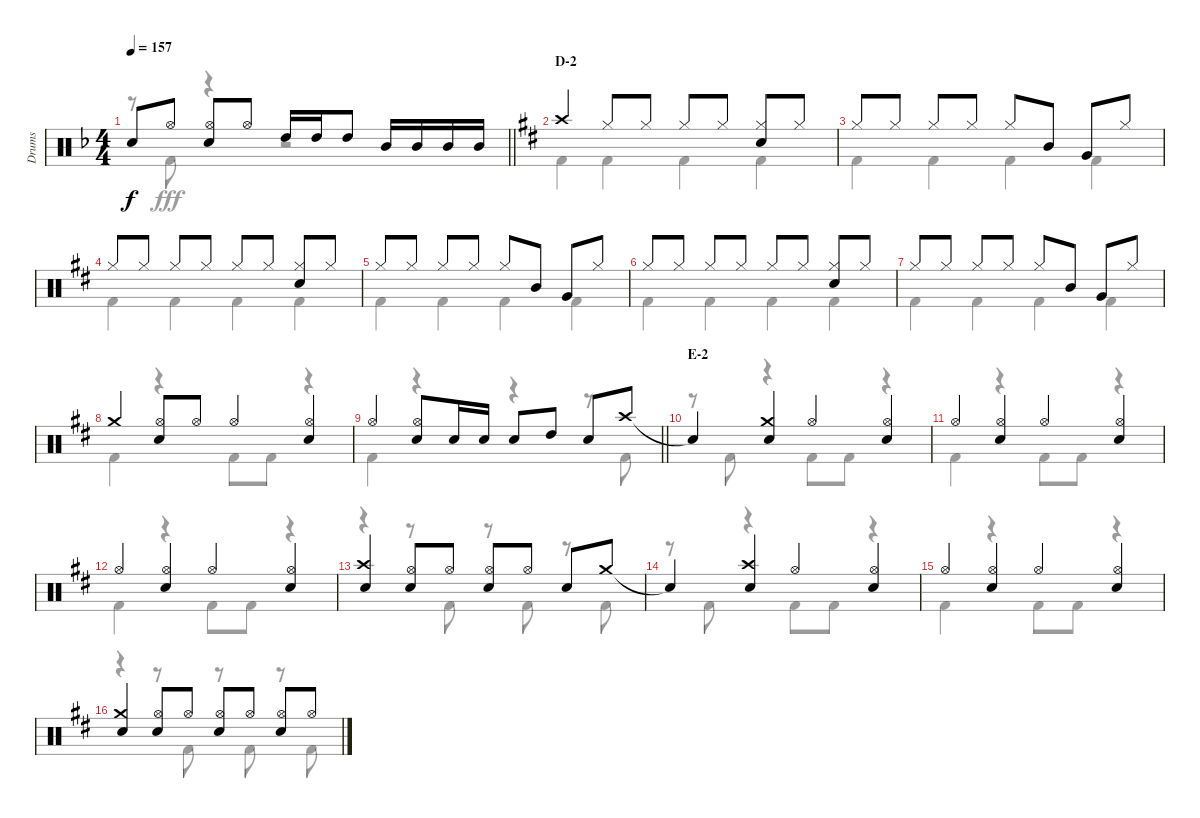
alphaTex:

\track ("Drums" "Drums") {instrument percussion}
\staff {score}
\articulation defaults
\voice
\ts (4 4)
\tempo 157
\clef neutral
\barLineRight lightlight
\ks f "Snare (hit)"{t}.8{dy f} "Hi-Hat (open)".8
("Hi-Hat (open)" "Snare (hit) 2").8 "Hi-Hat (open)".8 "High Tom (hit)".16 "High Tom (hit)".16 "High Tom (hit)".8 "Mid Tom (hit)".16 "Mid Tom (hit)".16 "Mid Tom (hit)".16 "Mid Tom (hit)".16 |
\section ("" "D-2")
\ks d "Crash high (hit)".4 "Hi-Hat (closed)".8 "Hi-Hat (closed)".8 "Hi-Hat (closed)".8 "Hi-Hat (closed)".8
("Hi-Hat (closed)" "Snare (hit) 2").8 "Hi-Hat (closed)".8 |
"Hi-Hat (closed)".8 "Hi-Hat (closed)".8 "Hi-Hat (closed)".8 "Hi-Hat (closed)".8 "Hi-Hat (closed)".8 "Mid Tom (hit)".8 "Very Low Tom (hit)".8 "Hi-Hat (closed)".8 |
"Hi-Hat (closed)".8 "Hi-Hat (closed)".8 "Hi-Hat (closed)".8 "Hi-Hat (closed)".8 "Hi-Hat (closed)".8 "Hi-Hat (closed)".8 ("Hi-Hat (closed)" "Snare (hit) 2").8 "Hi-Hat (closed)".8 |
"Hi-Hat (closed)".8 "Hi-Hat (closed)".8 "Hi-Hat (closed)".8 "Hi-Hat (closed)".8 "Hi-Hat (closed)".8 "Mid Tom (hit)".8 "Very Low Tom (hit)".8 "Hi-Hat (closed)".8 |
"Hi-Hat (closed)".8 "Hi-Hat (closed)".8 "Hi-Hat (closed)".8 "Hi-Hat (closed)".8 "Hi-Hat (closed)".8 "Hi-Hat (closed)".8 ("Hi-Hat (closed)" "Snare (hit) 2").8 "Hi-Hat (closed)".8 |
"Hi-Hat (closed)".8 "Hi-Hat (closed)".8 "Hi-Hat (closed)".8 "Hi-Hat (closed)".8 "Hi-Hat (closed)".8 "Mid Tom (hit)".8 "Very Low Tom (hit)".8 "Hi-Hat (closed)".8 |
"Crash medium (hit)".4 ("Hi-Hat (open)" "Snare (hit) 2").8 "Hi-Hat (open)".8 "Hi-Hat (open)".4 ("Hi-Hat (open)" "Snare (hit) 2").4 |
\barLineRight lightlight "Hi-Hat (open)".4
("Hi-Hat (open)" "Snare (hit) 2").8 "Snare (hit) 2".16 "Snare (hit) 2".16 "Snare (hit) 2".8 "High Tom (hit)".8 "Snare (hit) 2".8 "Crash high (hit)".8 |
\section ("" "E-2")
"Snare (hit)"{t}.4 ("Crash medium (hit)" "Snare (hit) 2").4 "Hi-Hat (open)".4 ("Hi-Hat (open)" "Snare (hit) 2").4 |
"Hi-Hat (open)".4 ("Hi-Hat (open)" "Snare (hit) 2").4 "Hi-Hat (open)".4 ("Hi-Hat (open)" "Snare (hit) 2").4 |
"Hi-Hat (open)".4 ("Hi-Hat (open)" "Snare (hit) 2").4 "Hi-Hat (open)".4 ("Hi-Hat (open)" "Snare (hit) 2").4 |
("Crash high (hit)" "Snare (hit) 2").4 ("Hi-Hat (open)" "Snare (hit) 2").8 "Hi-Hat (open)".8 ("Hi-Hat (open)" "Snare (hit) 2").8 "Hi-Hat (open)".8 "Snare (hit) 2".8 "Crash medium (hit)".8 |
"Snare (hit)"{t}.4 ("Crash high (hit)" "Snare (hit) 2").4 "Hi-Hat (open)".4 ("Hi-Hat (open)" "Snare (hit) 2").4 |
"Hi-Hat (open)".4 ("Hi-Hat (open)" "Snare (hit) 2").4 "Hi-Hat (open)".4 ("Hi-Hat (open)" "Snare (hit) 2").4 |
("Crash medium (hit)" "Snare (hit) 2").4 ("Hi-Hat (open)" "Snare (hit) 2").8 "Hi-Hat (open)".8 ("Hi-Hat (open)" "Snare (hit) 2").8 "Hi-Hat (open)".8 ("Hi-Hat (open)" "Snare (hit) 2").8 "Hi-Hat (open)".8
\voice
\clef neutral
\ottava regular
\simile none
\barLineRight lightlight
\ks f
r.8{dy fff} "Kick (hit) 2".8 r.4 r.2 |
\ks d "Kick (hit) 2".4 "Kick (hit) 2".4 "Kick (hit) 2".4 "Kick (hit) 2".4
|
"Kick (hit) 2".4 "Kick (hit) 2".4 "Kick (hit) 2".4 "Kick (hit) 2".4 |
"Kick (hit) 2".4 "Kick (hit) 2".4 "Kick (hit) 2".4 "Kick (hit) 2".4 |
"Kick (hit) 2".4 "Kick (hit) 2".4 "Kick (hit) 2".4 "Kick (hit) 2".4 |
"Kick (hit) 2".4 "Kick (hit) 2".4 "Kick (hit) 2".4 "Kick (hit) 2".4 |
"Kick (hit) 2".4 "Kick (hit) 2".4 "Kick (hit) 2".4 "Kick (hit) 2".4 |
"Kick (hit) 2".4 r.4 "Kick (hit) 2".8 "Kick (hit) 2".8 r.4 |
\barLineRight lightlight "Kick (hit) 2".4
r.4 r.4 r.8 "Kick (hit) 2".8 |
r.8 "Kick (hit) 2".8 r.4 "Kick (hit) 2".8 "Kick (hit) 2".8 r.4 |
"Kick (hit) 2".4 r.4 "Kick (hit) 2".8 "Kick (hit) 2".8 r.4 |
"Kick (hit) 2".4 r.4 "Kick (hit) 2".8 "Kick (hit) 2".8 r.4 |
r.4 r.8 "Kick (hit) 2".8 r.8 "Kick (hit) 2".8 r.8 "Kick (hit) 2".8 |
r.8 "Kick (hit) 2".8 r.4 "Kick (hit) 2".8 "Kick (hit) 2".8 r.4 |
"Kick (hit) 2".4 r.4 "Kick (hit) 2".8 "Kick (hit) 2".8 r.4 |
r.4 r.8 "Kick (hit) 2".8 r.8 "Kick (hit) 2".8 r.8 "Kick (hit) 2".8
